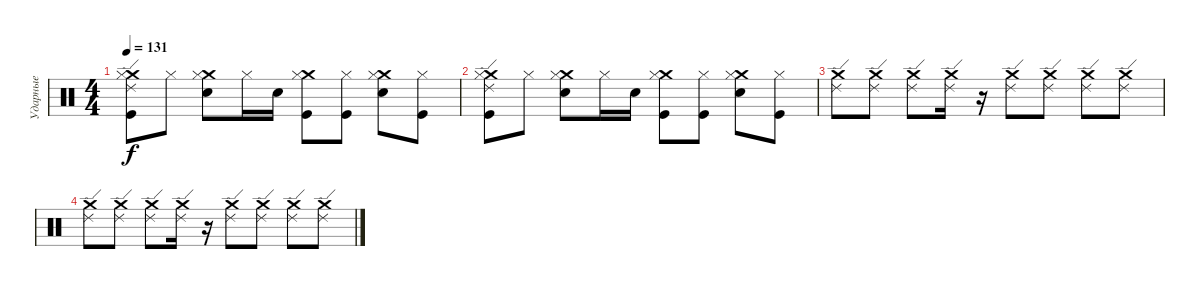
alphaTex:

\track ("Ударные" "Ударные") {instrument percussion}
\staff {score}
\articulation defaults
\ts (4 4)
\tempo 131
\clef neutral
\ks c
("Crash medium (hit)" "Kick (hit)" "Hi-Hat (closed)" "Ride (edge) 2").8{dy f} "Hi-Hat (closed)".8 ("Crash medium (hit)" "Snare (hit) 2" "Hi-Hat (closed)").8 "Hi-Hat (closed)".16 "Snare (hit) 2".16 ("Crash medium (hit)" "Kick (hit)" "Hi-Hat (closed)").8 ("Kick (hit)" "Hi-Hat (closed)").8 ("Crash medium (hit)" "Snare (hit) 2" "Hi-Hat (closed)").8 ("Kick (hit)" "Hi-Hat (closed)").8 |
("Crash medium (hit)" "Kick (hit)" "Hi-Hat (closed)" "Ride (edge) 2").8 "Hi-Hat (closed)".8 ("Crash medium (hit)" "Snare (hit) 2" "Hi-Hat (closed)").8 "Hi-Hat (closed)".16 "Snare (hit) 2".16 ("Crash medium (hit)" "Kick (hit)" "Hi-Hat (closed)").8 ("Kick (hit)" "Hi-Hat (closed)").8 ("Crash medium (hit)" "Snare (hit) 2" "Hi-Hat (closed)").8 ("Kick (hit)" "Hi-Hat (closed)").8 |
("Crash medium (hit)" "Ride (edge) 2").8 ("Crash medium (hit)" "Ride (edge) 2").8 ("Crash medium (hit)" "Ride (edge) 2").8 ("Crash medium (hit)" "Ride (edge) 2").16 r.16 ("Crash medium (hit)" "Ride (edge) 2").8 ("Crash medium (hit)" "Ride (edge) 2").8 ("Crash medium (hit)" "Ride (edge) 2").8 ("Crash medium (hit)" "Ride (edge) 2").8 |
("Crash medium (hit)" "Ride (edge) 2").8 ("Crash medium (hit)" "Ride (edge) 2").8 ("Crash medium (hit)" "Ride (edge) 2").8 ("Crash medium (hit)" "Ride (edge) 2").16 r.16 ("Crash medium (hit)" "Ride (edge) 2").8 ("Crash medium (hit)" "Ride (edge) 2").8 ("Crash medium (hit)" "Ride (edge) 2").8 ("Crash medium (hit)" "Ride (edge) 2").8
